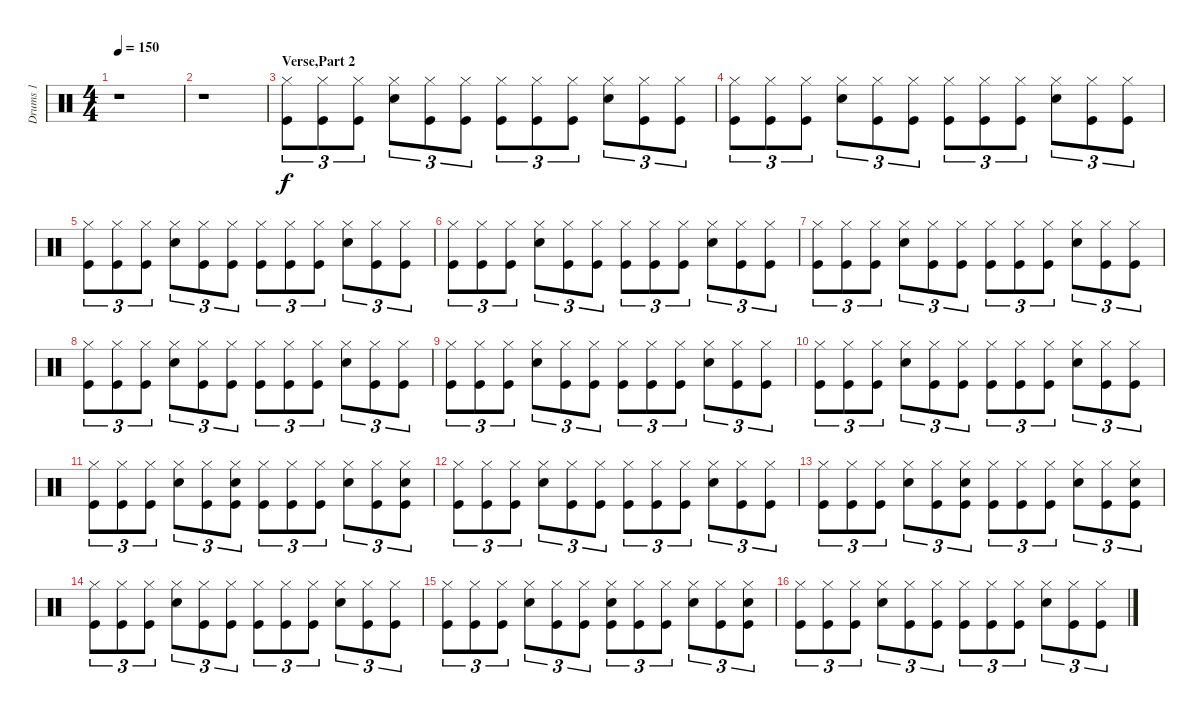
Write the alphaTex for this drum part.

\track ("Drums 1" "Drums 1") {instrument percussion}
\staff {score}
\articulation defaults
\ts (4 4)
\tempo 150
\clef neutral
\ks c
r.1{dy f} |
r.1 |
\section ("" "Verse,Part 2")
("Hi-Hat (closed)" "Kick (hit)").8{tu (3 2)} ("Hi-Hat (closed)" "Kick (hit)").8{tu (3 2)} ("Hi-Hat (closed)" "Kick (hit)").8{tu (3 2)} ("Hi-Hat (closed)" "Snare (hit) 2").8{tu (3 2)} ("Hi-Hat (closed)" "Kick (hit)").8{tu (3 2)} ("Hi-Hat (closed)" "Kick (hit)").8{tu (3 2)} ("Hi-Hat (closed)" "Kick (hit)").8{tu (3 2)} ("Hi-Hat (closed)" "Kick (hit)").8{tu (3 2)} ("Hi-Hat (closed)" "Kick (hit)").8{tu (3 2)} ("Hi-Hat (closed)" "Snare (hit) 2").8{tu (3 2)} ("Hi-Hat (closed)" "Kick (hit)").8{tu (3 2)} ("Hi-Hat (closed)" "Kick (hit)").8{tu (3 2)} |
("Hi-Hat (closed)" "Kick (hit)").8{tu (3 2)} ("Hi-Hat (closed)" "Kick (hit)").8{tu (3 2)} ("Hi-Hat (closed)" "Kick (hit)").8{tu (3 2)} ("Hi-Hat (closed)" "Snare (hit) 2").8{tu (3 2)} ("Hi-Hat (closed)" "Kick (hit)").8{tu (3 2)} ("Hi-Hat (closed)" "Kick (hit)").8{tu (3 2)} ("Hi-Hat (closed)" "Kick (hit)").8{tu (3 2)} ("Hi-Hat (closed)" "Kick (hit)").8{tu (3 2)} ("Hi-Hat (closed)" "Kick (hit)").8{tu (3 2)} ("Hi-Hat (closed)" "Snare (hit) 2").8{tu (3 2)} ("Hi-Hat (closed)" "Kick (hit)").8{tu (3 2)} ("Hi-Hat (closed)" "Kick (hit)").8{tu (3 2)} |
("Hi-Hat (closed)" "Kick (hit)").8{tu (3 2)} ("Hi-Hat (closed)" "Kick (hit)").8{tu (3 2)} ("Hi-Hat (closed)" "Kick (hit)").8{tu (3 2)} ("Hi-Hat (closed)" "Snare (hit) 2").8{tu (3 2)} ("Hi-Hat (closed)" "Kick (hit)").8{tu (3 2)} ("Hi-Hat (closed)" "Kick (hit)").8{tu (3 2)} ("Hi-Hat (closed)" "Kick (hit)").8{tu (3 2)} ("Hi-Hat (closed)" "Kick (hit)").8{tu (3 2)} ("Hi-Hat (closed)" "Kick (hit)").8{tu (3 2)} ("Hi-Hat (closed)" "Snare (hit) 2").8{tu (3 2)} ("Hi-Hat (closed)" "Kick (hit)").8{tu (3 2)} ("Hi-Hat (closed)" "Kick (hit)").8{tu (3 2)} |
("Hi-Hat (closed)" "Kick (hit)").8{tu (3 2)} ("Hi-Hat (closed)" "Kick (hit)").8{tu (3 2)} ("Hi-Hat (closed)" "Kick (hit)").8{tu (3 2)} ("Hi-Hat (closed)" "Snare (hit) 2").8{tu (3 2)} ("Hi-Hat (closed)" "Kick (hit)").8{tu (3 2)} ("Hi-Hat (closed)" "Kick (hit)").8{tu (3 2)} ("Hi-Hat (closed)" "Kick (hit)").8{tu (3 2)} ("Hi-Hat (closed)" "Kick (hit)").8{tu (3 2)} ("Hi-Hat (closed)" "Kick (hit)").8{tu (3 2)} ("Hi-Hat (closed)" "Snare (hit) 2").8{tu (3 2)} ("Hi-Hat (closed)" "Kick (hit)").8{tu (3 2)} ("Hi-Hat (closed)" "Kick (hit)").8{tu (3 2)} |
("Hi-Hat (closed)" "Kick (hit)").8{tu (3 2)} ("Hi-Hat (closed)" "Kick (hit)").8{tu (3 2)} ("Hi-Hat (closed)" "Kick (hit)").8{tu (3 2)} ("Hi-Hat (closed)" "Snare (hit) 2").8{tu (3 2)} ("Hi-Hat (closed)" "Kick (hit)").8{tu (3 2)} ("Hi-Hat (closed)" "Kick (hit)").8{tu (3 2)} ("Hi-Hat (closed)" "Kick (hit)").8{tu (3 2)} ("Hi-Hat (closed)" "Kick (hit)").8{tu (3 2)} ("Hi-Hat (closed)" "Kick (hit)").8{tu (3 2)} ("Hi-Hat (closed)" "Snare (hit) 2").8{tu (3 2)} ("Hi-Hat (closed)" "Kick (hit)").8{tu (3 2)} ("Hi-Hat (closed)" "Kick (hit)").8{tu (3 2)} |
("Hi-Hat (closed)" "Kick (hit)").8{tu (3 2)} ("Hi-Hat (closed)" "Kick (hit)").8{tu (3 2)} ("Hi-Hat (closed)" "Kick (hit)").8{tu (3 2)} ("Hi-Hat (closed)" "Snare (hit) 2").8{tu (3 2)} ("Hi-Hat (closed)" "Kick (hit)").8{tu (3 2)} ("Hi-Hat (closed)" "Kick (hit)").8{tu (3 2)} ("Hi-Hat (closed)" "Kick (hit)").8{tu (3 2)} ("Hi-Hat (closed)" "Kick (hit)").8{tu (3 2)} ("Hi-Hat (closed)" "Kick (hit)").8{tu (3 2)} ("Hi-Hat (closed)" "Snare (hit) 2").8{tu (3 2)} ("Hi-Hat (closed)" "Kick (hit)").8{tu (3 2)} ("Hi-Hat (closed)" "Kick (hit)").8{tu (3 2)} |
("Hi-Hat (closed)" "Kick (hit)").8{tu (3 2)} ("Hi-Hat (closed)" "Kick (hit)").8{tu (3 2)} ("Hi-Hat (closed)" "Kick (hit)").8{tu (3 2)} ("Hi-Hat (closed)" "Snare (hit) 2").8{tu (3 2)} ("Hi-Hat (closed)" "Kick (hit)").8{tu (3 2)} ("Hi-Hat (closed)" "Kick (hit)").8{tu (3 2)} ("Hi-Hat (closed)" "Kick (hit)").8{tu (3 2)} ("Hi-Hat (closed)" "Kick (hit)").8{tu (3 2)} ("Hi-Hat (closed)" "Kick (hit)").8{tu (3 2)} ("Hi-Hat (closed)" "Snare (hit) 2").8{tu (3 2)} ("Hi-Hat (closed)" "Kick (hit)").8{tu (3 2)} ("Hi-Hat (closed)" "Kick (hit)").8{tu (3 2)} |
("Hi-Hat (closed)" "Kick (hit)").8{tu (3 2)} ("Hi-Hat (closed)" "Kick (hit)").8{tu (3 2)} ("Hi-Hat (closed)" "Kick (hit)").8{tu (3 2)} ("Hi-Hat (closed)" "Snare (hit) 2").8{tu (3 2)} ("Hi-Hat (closed)" "Kick (hit)").8{tu (3 2)} ("Hi-Hat (closed)" "Kick (hit)").8{tu (3 2)} ("Hi-Hat (closed)" "Kick (hit)").8{tu (3 2)} ("Hi-Hat (closed)" "Kick (hit)").8{tu (3 2)} ("Hi-Hat (closed)" "Kick (hit)").8{tu (3 2)} ("Hi-Hat (closed)" "Snare (hit) 2").8{tu (3 2)} ("Hi-Hat (closed)" "Kick (hit)").8{tu (3 2)} ("Hi-Hat (closed)" "Kick (hit)").8{tu (3 2)} |
("Hi-Hat (closed)" "Kick (hit)").8{tu (3 2)} ("Hi-Hat (closed)" "Kick (hit)").8{tu (3 2)} ("Hi-Hat (closed)" "Kick (hit)").8{tu (3 2)} ("Hi-Hat (closed)" "Snare (hit) 2").8{tu (3 2)} ("Hi-Hat (closed)" "Kick (hit)").8{tu (3 2)} ("Snare (hit) 2" "Hi-Hat (closed)" "Kick (hit)").8{tu (3 2)} ("Hi-Hat (closed)" "Kick (hit)").8{tu (3 2)} ("Hi-Hat (closed)" "Kick (hit)").8{tu (3 2)} ("Hi-Hat (closed)" "Kick (hit)").8{tu (3 2)} ("Hi-Hat (closed)" "Snare (hit) 2").8{tu (3 2)} ("Hi-Hat (closed)" "Kick (hit)").8{tu (3 2)} ("Snare (hit) 2" "Hi-Hat (closed)" "Kick (hit)").8{tu (3 2)} |
("Hi-Hat (closed)" "Kick (hit)").8{tu (3 2)} ("Hi-Hat (closed)" "Kick (hit)").8{tu (3 2)} ("Hi-Hat (closed)" "Kick (hit)").8{tu (3 2)} ("Hi-Hat (closed)" "Snare (hit) 2").8{tu (3 2)} ("Hi-Hat (closed)" "Kick (hit)").8{tu (3 2)} ("Hi-Hat (closed)" "Kick (hit)").8{tu (3 2)} ("Hi-Hat (closed)" "Kick (hit)").8{tu (3 2)} ("Hi-Hat (closed)" "Kick (hit)").8{tu (3 2)} ("Hi-Hat (closed)" "Kick (hit)").8{tu (3 2)} ("Hi-Hat (closed)" "Snare (hit) 2").8{tu (3 2)} ("Hi-Hat (closed)" "Kick (hit)").8{tu (3 2)} ("Hi-Hat (closed)" "Kick (hit)").8{tu (3 2)} |
("Hi-Hat (closed)" "Kick (hit)").8{tu (3 2)} ("Hi-Hat (closed)" "Kick (hit)").8{tu (3 2)} ("Hi-Hat (closed)" "Kick (hit)").8{tu (3 2)} ("Hi-Hat (closed)" "Snare (hit) 2").8{tu (3 2)} ("Hi-Hat (closed)" "Kick (hit)").8{tu (3 2)} ("Snare (hit) 2" "Hi-Hat (closed)" "Kick (hit)").8{tu (3 2)} ("Hi-Hat (closed)" "Kick (hit)").8{tu (3 2)} ("Hi-Hat (closed)" "Kick (hit)").8{tu (3 2)} ("Hi-Hat (closed)" "Kick (hit)").8{tu (3 2)} ("Hi-Hat (closed)" "Snare (hit) 2").8{tu (3 2)} ("Hi-Hat (closed)" "Kick (hit)").8{tu (3 2)} ("Snare (hit) 2" "Hi-Hat (closed)" "Kick (hit)").8{tu (3 2)} |
("Hi-Hat (closed)" "Kick (hit)").8{tu (3 2)} ("Hi-Hat (closed)" "Kick (hit)").8{tu (3 2)} ("Hi-Hat (closed)" "Kick (hit)").8{tu (3 2)} ("Hi-Hat (closed)" "Snare (hit) 2").8{tu (3 2)} ("Hi-Hat (closed)" "Kick (hit)").8{tu (3 2)} ("Hi-Hat (closed)" "Kick (hit)").8{tu (3 2)} ("Hi-Hat (closed)" "Kick (hit)").8{tu (3 2)} ("Hi-Hat (closed)" "Kick (hit)").8{tu (3 2)} ("Hi-Hat (closed)" "Kick (hit)").8{tu (3 2)} ("Hi-Hat (closed)" "Snare (hit) 2").8{tu (3 2)} ("Hi-Hat (closed)" "Kick (hit)").8{tu (3 2)} ("Hi-Hat (closed)" "Kick (hit)").8{tu (3 2)} |
("Hi-Hat (closed)" "Kick (hit)").8{tu (3 2)} ("Hi-Hat (closed)" "Kick (hit)").8{tu (3 2)} ("Hi-Hat (closed)" "Kick (hit)").8{tu (3 2)} ("Hi-Hat (closed)" "Snare (hit) 2").8{tu (3 2)} ("Hi-Hat (closed)" "Kick (hit)").8{tu (3 2)} ("Hi-Hat (closed)" "Kick (hit)").8{tu (3 2)} ("Snare (hit) 2" "Hi-Hat (closed)" "Kick (hit)").8{tu (3 2)} ("Hi-Hat (closed)" "Kick (hit)").8{tu (3 2)} ("Hi-Hat (closed)" "Kick (hit)").8{tu (3 2)} ("Hi-Hat (closed)" "Snare (hit) 2").8{tu (3 2)} ("Hi-Hat (closed)" "Kick (hit)").8{tu (3 2)} ("Snare (hit) 2" "Hi-Hat (closed)" "Kick (hit)").8{tu (3 2)} |
("Hi-Hat (closed)" "Kick (hit)").8{tu (3 2)} ("Hi-Hat (closed)" "Kick (hit)").8{tu (3 2)} ("Hi-Hat (closed)" "Kick (hit)").8{tu (3 2)} ("Hi-Hat (closed)" "Snare (hit) 2").8{tu (3 2)} ("Hi-Hat (closed)" "Kick (hit)").8{tu (3 2)} ("Hi-Hat (closed)" "Kick (hit)").8{tu (3 2)} ("Hi-Hat (closed)" "Kick (hit)").8{tu (3 2)} ("Hi-Hat (closed)" "Kick (hit)").8{tu (3 2)} ("Hi-Hat (closed)" "Kick (hit)").8{tu (3 2)} ("Hi-Hat (closed)" "Snare (hit) 2").8{tu (3 2)} ("Hi-Hat (closed)" "Kick (hit)").8{tu (3 2)} ("Hi-Hat (closed)" "Kick (hit)").8{tu (3 2)}
